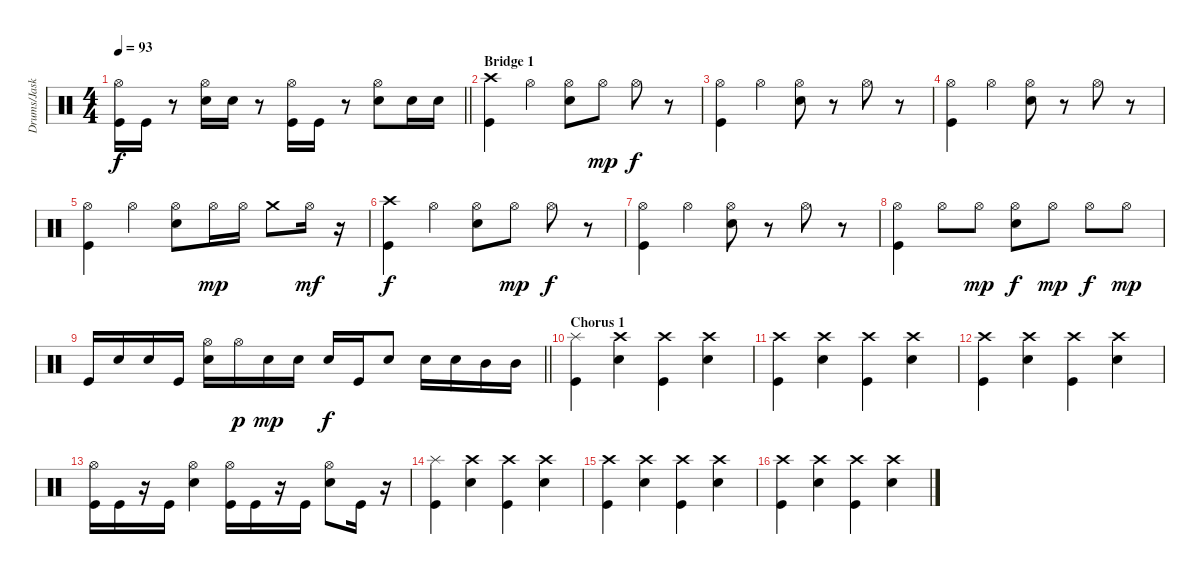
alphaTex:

\track ("Drums/Jaska" "Drums/Jask") {instrument percussion}
\staff {score}
\articulation defaults
\ts (4 4)
\tempo 93
\clef neutral
\barLineRight lightlight
\ks c
("Hi-Hat (open)" "Kick (hit)").16{dy f} "Kick (hit)".16 r.8 ("Hi-Hat (open)" "Electric Snare (hit)").16 "Electric Snare (hit)".16 r.8 ("Hi-Hat (open)" "Kick (hit)").16 "Kick (hit)".16 r.8 ("Hi-Hat (open)" "Electric Snare (hit)").8 "Electric Snare (hit)".16 "Electric Snare (hit)".16 |
\section ("" "Bridge 1")
("Crash high (hit)" "Kick (hit)").4 "Hi-Hat (open)".4 ("Hi-Hat (open)" "Electric Snare (hit)").8 "Hi-Hat (open)".8{dy mp} "Hi-Hat (open)".8{dy f} r.8 |
("Hi-Hat (open)" "Kick (hit)").4 "Hi-Hat (open)".4 ("Hi-Hat (open)" "Electric Snare (hit)").8 r.8 "Hi-Hat (open)".8 r.8 |
("Hi-Hat (open)" "Kick (hit)").4 "Hi-Hat (open)".4 ("Hi-Hat (open)" "Electric Snare (hit)").8 r.8 "Hi-Hat (open)".8 r.8 |
("Hi-Hat (open)" "Kick (hit)").4 "Hi-Hat (open)".4 ("Hi-Hat (open)" "Electric Snare (hit)").8 "Hi-Hat (open)".16{dy mp} "Hi-Hat (open)".16 "Crash medium (hit)".8 "Hi-Hat (open)".16{dy mf} r.16 |
("Crash high (hit)" "Kick (hit)").4{dy f} "Hi-Hat (open)".4 ("Hi-Hat (open)" "Electric Snare (hit)").8 "Hi-Hat (open)".8{dy mp} "Hi-Hat (open)".8{dy f} r.8 |
("Hi-Hat (open)" "Kick (hit)").4 "Hi-Hat (open)".4 ("Hi-Hat (open)" "Electric Snare (hit)").8 r.8 "Hi-Hat (open)".8 r.8 |
("Hi-Hat (open)" "Kick (hit)").4 "Hi-Hat (open)".8 "Hi-Hat (open)".8{dy mp} ("Hi-Hat (open)" "Electric Snare (hit)").8{dy f} "Hi-Hat (open)".8{dy mp} "Hi-Hat (open)".8{dy f} "Hi-Hat (open)".8{dy mp} |
\barLineRight lightlight "Kick (hit)".16 "Electric Snare (hit)".16 "Electric Snare (hit)".16 "Kick (hit)".16
("Hi-Hat (open)" "Electric Snare (hit)").16 "Hi-Hat (open)".16{dy p} "Electric Snare (hit)".16{dy mp} "Electric Snare (hit)".16 "Electric Snare (hit)".16{dy f} "Kick (hit)".16 "Electric Snare (hit)".8 "Electric Snare (hit)".16 "Electric Snare (hit)".16 "Mid Tom (hit)".16 "Mid Tom (hit)".16 |
\section ("" "Chorus 1")
("Splash (hit)" "Kick (hit)").4 ("Crash high (hit)" "Electric Snare (hit)").4 ("Crash high (hit)" "Kick (hit)").4 ("Crash high (hit)" "Electric Snare (hit)").4 |
("Crash high (hit)" "Kick (hit)").4 ("Crash high (hit)" "Electric Snare (hit)").4 ("Crash high (hit)" "Kick (hit)").4 ("Crash high (hit)" "Electric Snare (hit)").4 |
("Crash high (hit)" "Kick (hit)").4 ("Crash high (hit)" "Electric Snare (hit)").4 ("Crash high (hit)" "Kick (hit)").4 ("Crash high (hit)" "Electric Snare (hit)").4 |
("Hi-Hat (open)" "Kick (hit)").16 "Kick (hit)".16 r.16 "Kick (hit)".16 ("Hi-Hat (open)" "Electric Snare (hit)").4 ("Hi-Hat (open)" "Kick (hit)").16 "Kick (hit)".16 r.16 "Kick (hit)".16 ("Hi-Hat (open)" "Electric Snare (hit)").8 "Kick (hit)".16 r.16 |
("Splash (hit)" "Kick (hit)").4 ("Crash high (hit)" "Electric Snare (hit)").4 ("Crash high (hit)" "Kick (hit)").4 ("Crash high (hit)" "Electric Snare (hit)").4 |
("Crash high (hit)" "Kick (hit)").4 ("Crash high (hit)" "Electric Snare (hit)").4 ("Crash high (hit)" "Kick (hit)").4 ("Crash high (hit)" "Electric Snare (hit)").4 |
("Crash high (hit)" "Kick (hit)").4 ("Crash high (hit)" "Electric Snare (hit)").4 ("Crash high (hit)" "Kick (hit)").4 ("Crash high (hit)" "Electric Snare (hit)").4
